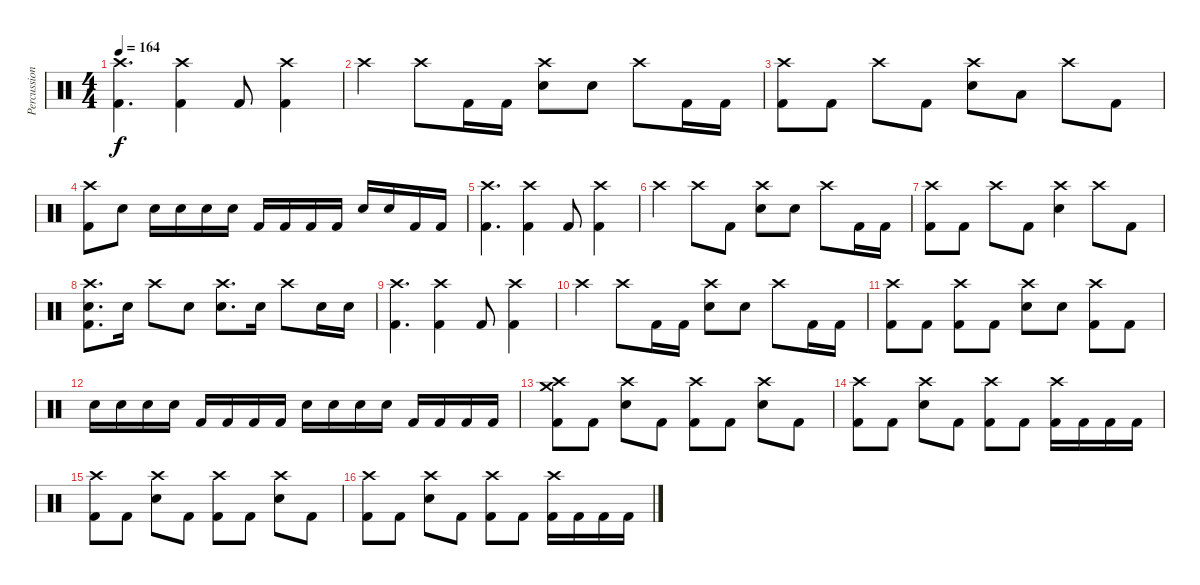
\track ("Percussion" "Percussion") {instrument percussion}
\staff {score}
\articulation defaults
\ts (4 4)
\tempo 164
\clef neutral
\ks c
("Crash high (hit)" "Kick (hit) 2").4{d dy f} ("Crash high (hit)" "Kick (hit) 2").4 "Kick (hit) 2".8 ("Crash high (hit)" "Kick (hit) 2").4 |
"Crash high (hit)".4 "Crash high (hit)".8 "Kick (hit) 2".16 "Kick (hit) 2".16 ("Crash high (hit)" "Electric Snare (hit)").8 "Electric Snare (hit)".8 "Crash high (hit)".8 "Kick (hit) 2".16 "Kick (hit) 2".16 |
("Crash high (hit)" "Kick (hit) 2").8 "Kick (hit) 2".8 "Crash high (hit)".8 "Kick (hit) 2".8 ("Crash high (hit)" "Electric Snare (hit)").8 "Low Tom (hit)".8 "Crash high (hit)".8 "Kick (hit) 2".8 |
("Crash high (hit)" "Kick (hit) 2").8 "Electric Snare (hit)".8 "Electric Snare (hit)".16 "Electric Snare (hit)".16 "Electric Snare (hit)".16 "Electric Snare (hit)".16 "Kick (hit) 2".16 "Kick (hit) 2".16 "Kick (hit) 2".16 "Kick (hit) 2".16 "Electric Snare (hit)".16 "Electric Snare (hit)".16 "Kick (hit) 2".16 "Kick (hit) 2".16 |
("Crash high (hit)" "Kick (hit) 2").4{d} ("Crash high (hit)" "Kick (hit) 2").4 "Kick (hit) 2".8 ("Crash high (hit)" "Kick (hit) 2").4 |
"Crash high (hit)".4 "Crash high (hit)".8 "Kick (hit) 2".8 ("Crash high (hit)" "Electric Snare (hit)").8 "Electric Snare (hit)".8 "Crash high (hit)".8 "Kick (hit) 2".16 "Kick (hit) 2".16 |
("Crash high (hit)" "Kick (hit) 2").8 "Kick (hit) 2".8 "Crash high (hit)".8 "Kick (hit) 2".8 ("Crash high (hit)" "Electric Snare (hit)").4 "Crash high (hit)".8 "Kick (hit) 2".8 |
("Crash high (hit)" "Electric Snare (hit)" "Kick (hit) 2").8{d} "Electric Snare (hit)".16 "Crash high (hit)".8 "Electric Snare (hit)".8 ("Crash high (hit)" "Electric Snare (hit)").8{d} "Electric Snare (hit)".16 "Crash high (hit)".8 "Electric Snare (hit)".16 "Electric Snare (hit)".16 |
("Crash high (hit)" "Kick (hit) 2").4{d} ("Crash high (hit)" "Kick (hit) 2").4 "Kick (hit) 2".8 ("Crash high (hit)" "Kick (hit) 2").4 |
"Crash high (hit)".4 "Crash high (hit)".8 "Kick (hit) 2".16 "Kick (hit) 2".16 ("Crash high (hit)" "Electric Snare (hit)").8 "Electric Snare (hit)".8 "Crash high (hit)".8 "Kick (hit) 2".16 "Kick (hit) 2".16 |
("Crash high (hit)" "Kick (hit) 2").8 "Kick (hit) 2".8 ("Crash high (hit)" "Kick (hit) 2").8 "Kick (hit) 2".8 ("Crash high (hit)" "Electric Snare (hit)").8 "Electric Snare (hit)".8 ("Crash high (hit)" "Kick (hit) 2").8 "Kick (hit) 2".8 |
"Electric Snare (hit)".16 "Electric Snare (hit)".16 "Electric Snare (hit)".16 "Electric Snare (hit)".16 "Kick (hit) 2".16 "Kick (hit) 2".16 "Kick (hit) 2".16 "Kick (hit) 2".16 "Electric Snare (hit)".16 "Electric Snare (hit)".16 "Electric Snare (hit)".16 "Electric Snare (hit)".16 "Kick (hit) 2".16 "Kick (hit) 2".16 "Kick (hit) 2".16 "Kick (hit) 2".16 |
("Crash high (hit)" "Crash medium (hit)" "Kick (hit) 2").8 "Kick (hit) 2".8 ("Crash high (hit)" "Electric Snare (hit)").8 "Kick (hit) 2".8 ("Crash high (hit)" "Kick (hit) 2").8 "Kick (hit) 2".8 ("Crash high (hit)" "Electric Snare (hit)").8 "Kick (hit) 2".8 |
("Crash high (hit)" "Kick (hit) 2").8 "Kick (hit) 2".8 ("Crash high (hit)" "Electric Snare (hit)").8 "Kick (hit) 2".8 ("Crash high (hit)" "Kick (hit) 2").8 "Kick (hit) 2".8 ("Crash high (hit)" "Kick (hit) 2").16 "Kick (hit) 2".16 "Kick (hit) 2".16 "Kick (hit) 2".16 |
("Crash high (hit)" "Kick (hit) 2").8 "Kick (hit) 2".8 ("Crash high (hit)" "Electric Snare (hit)").8 "Kick (hit) 2".8 ("Crash high (hit)" "Kick (hit) 2").8 "Kick (hit) 2".8 ("Crash high (hit)" "Electric Snare (hit)").8 "Kick (hit) 2".8 |
("Crash high (hit)" "Kick (hit) 2").8 "Kick (hit) 2".8 ("Crash high (hit)" "Electric Snare (hit)").8 "Kick (hit) 2".8 ("Crash high (hit)" "Kick (hit) 2").8 "Kick (hit) 2".8 ("Crash high (hit)" "Kick (hit) 2").16 "Kick (hit) 2".16 "Kick (hit) 2".16 "Kick (hit) 2".16
